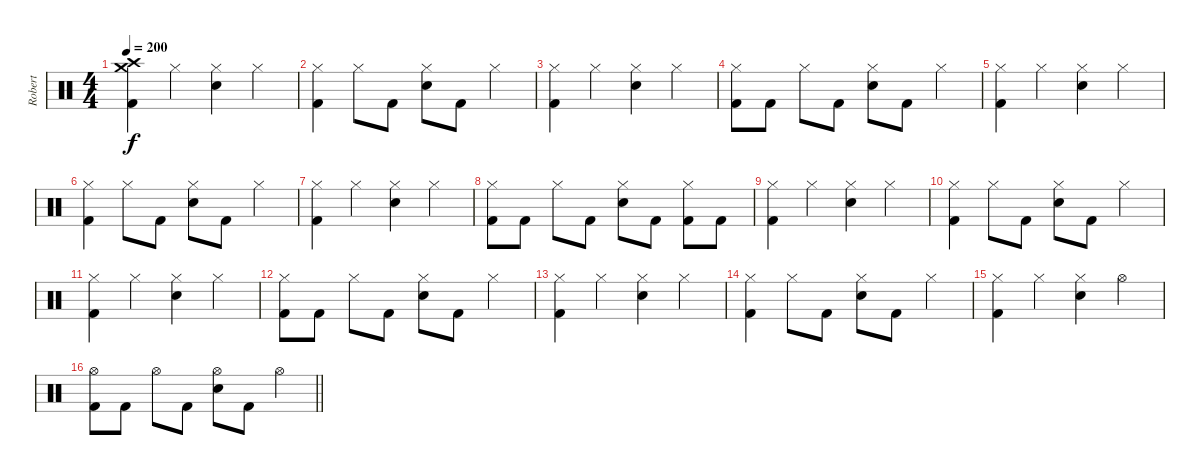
\track ("Robert" "Robert") {instrument percussion}
\staff {score}
\articulation defaults
\ts (4 4)
\tempo 200
\clef neutral
\ks c
("Kick (hit) 2" "Crash high (hit)" "Crash medium (hit)").4{dy f} "Hi-Hat (closed)".4 ("Hi-Hat (closed)" "Electric Snare (hit)").4 "Hi-Hat (closed)".4 |
("Hi-Hat (closed)" "Kick (hit) 2").4 "Hi-Hat (closed)".8 "Kick (hit) 2".8 ("Hi-Hat (closed)" "Electric Snare (hit)").8 "Kick (hit) 2".8 "Hi-Hat (closed)".4 |
("Hi-Hat (closed)" "Kick (hit) 2").4 "Hi-Hat (closed)".4 ("Hi-Hat (closed)" "Electric Snare (hit)").4 "Hi-Hat (closed)".4 |
("Hi-Hat (closed)" "Kick (hit) 2").8 "Kick (hit) 2".8 "Hi-Hat (closed)".8 "Kick (hit) 2".8 ("Hi-Hat (closed)" "Electric Snare (hit)").8 "Kick (hit) 2".8 "Hi-Hat (closed)".4 |
("Hi-Hat (closed)" "Kick (hit) 2").4 "Hi-Hat (closed)".4 ("Hi-Hat (closed)" "Electric Snare (hit)").4 "Hi-Hat (closed)".4 |
("Hi-Hat (closed)" "Kick (hit) 2").4 "Hi-Hat (closed)".8 "Kick (hit) 2".8 ("Hi-Hat (closed)" "Electric Snare (hit)").8 "Kick (hit) 2".8 "Hi-Hat (closed)".4 |
("Hi-Hat (closed)" "Kick (hit) 2").4 "Hi-Hat (closed)".4 ("Hi-Hat (closed)" "Electric Snare (hit)").4 "Hi-Hat (closed)".4 |
("Hi-Hat (closed)" "Kick (hit) 2").8 "Kick (hit) 2".8 "Hi-Hat (closed)".8 "Kick (hit) 2".8 ("Hi-Hat (closed)" "Electric Snare (hit)").8 "Kick (hit) 2".8 ("Hi-Hat (closed)" "Kick (hit) 2").8 "Kick (hit) 2".8 |
("Hi-Hat (closed)" "Kick (hit) 2").4 "Hi-Hat (closed)".4 ("Hi-Hat (closed)" "Electric Snare (hit)").4 "Hi-Hat (closed)".4 |
("Hi-Hat (closed)" "Kick (hit) 2").4 "Hi-Hat (closed)".8 "Kick (hit) 2".8 ("Hi-Hat (closed)" "Electric Snare (hit)").8 "Kick (hit) 2".8 "Hi-Hat (closed)".4 |
("Hi-Hat (closed)" "Kick (hit) 2").4 "Hi-Hat (closed)".4 ("Hi-Hat (closed)" "Electric Snare (hit)").4 "Hi-Hat (closed)".4 |
("Hi-Hat (closed)" "Kick (hit) 2").8 "Kick (hit) 2".8 "Hi-Hat (closed)".8 "Kick (hit) 2".8 ("Hi-Hat (closed)" "Electric Snare (hit)").8 "Kick (hit) 2".8 "Hi-Hat (closed)".4 |
("Hi-Hat (closed)" "Kick (hit) 2").4 "Hi-Hat (closed)".4 ("Hi-Hat (closed)" "Electric Snare (hit)").4 "Hi-Hat (closed)".4 |
("Hi-Hat (closed)" "Kick (hit) 2").4 "Hi-Hat (closed)".8 "Kick (hit) 2".8 ("Hi-Hat (closed)" "Electric Snare (hit)").8 "Kick (hit) 2".8 "Hi-Hat (closed)".4 |
("Hi-Hat (closed)" "Kick (hit) 2").4 "Hi-Hat (closed)".4 ("Hi-Hat (closed)" "Electric Snare (hit)").4 "Hi-Hat (open)".4 |
\barLineRight lightlight
("Hi-Hat (open)" "Kick (hit) 2").8 "Kick (hit) 2".8 "Hi-Hat (open)".8 "Kick (hit) 2".8 ("Hi-Hat (open)" "Electric Snare (hit)").8 "Kick (hit) 2".8 "Hi-Hat (open)".4
